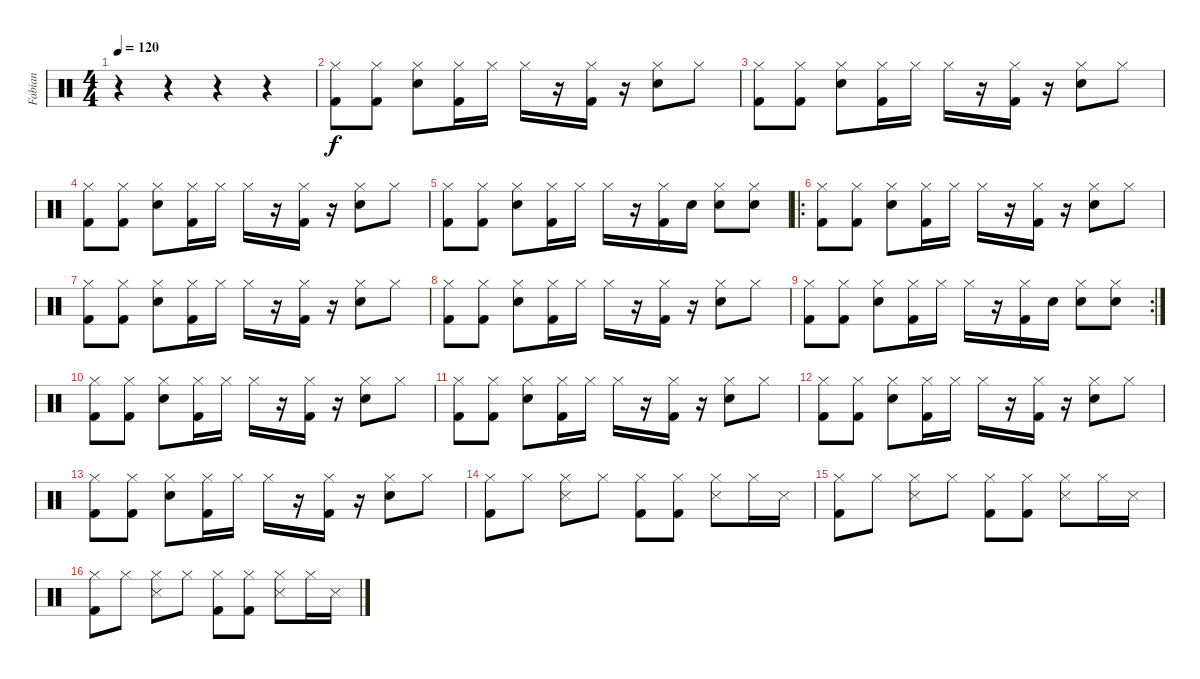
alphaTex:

\track ("Fabian" "Fabian") {instrument percussion}
\staff {score}
\articulation defaults
\ts (4 4)
\tempo 120
\clef neutral
\ks c
r.4{dy f} r.4 r.4 r.4 |
("Hi-Hat (closed)" "Kick (hit) 2").8 ("Hi-Hat (closed)" "Kick (hit) 2").8 ("Hi-Hat (closed)" "Electric Snare (hit)").8 ("Hi-Hat (closed)" "Kick (hit) 2").16 "Hi-Hat (closed)".16 "Hi-Hat (closed)".16 r.16 ("Hi-Hat (closed)" "Kick (hit) 2").16 r.16 ("Hi-Hat (closed)" "Electric Snare (hit)").8 "Hi-Hat (closed)".8 |
("Hi-Hat (closed)" "Kick (hit) 2").8 ("Hi-Hat (closed)" "Kick (hit) 2").8 ("Hi-Hat (closed)" "Electric Snare (hit)").8 ("Hi-Hat (closed)" "Kick (hit) 2").16 "Hi-Hat (closed)".16 "Hi-Hat (closed)".16 r.16 ("Hi-Hat (closed)" "Kick (hit) 2").16 r.16 ("Hi-Hat (closed)" "Electric Snare (hit)").8 "Hi-Hat (closed)".8 |
("Hi-Hat (closed)" "Kick (hit) 2").8 ("Hi-Hat (closed)" "Kick (hit) 2").8 ("Hi-Hat (closed)" "Electric Snare (hit)").8 ("Hi-Hat (closed)" "Kick (hit) 2").16 "Hi-Hat (closed)".16 "Hi-Hat (closed)".16 r.16 ("Hi-Hat (closed)" "Kick (hit) 2").16 r.16 ("Hi-Hat (closed)" "Electric Snare (hit)").8 "Hi-Hat (closed)".8 |
("Hi-Hat (closed)" "Kick (hit) 2").8 ("Hi-Hat (closed)" "Kick (hit) 2").8 ("Hi-Hat (closed)" "Electric Snare (hit)").8 ("Hi-Hat (closed)" "Kick (hit) 2").16 "Hi-Hat (closed)".16 "Hi-Hat (closed)".16 r.16 ("Hi-Hat (closed)" "Kick (hit) 2").16 "Electric Snare (hit)".16 ("Hi-Hat (closed)" "Electric Snare (hit)").8 ("Hi-Hat (closed)" "Electric Snare (hit)").8 |
\ro
("Hi-Hat (closed)" "Kick (hit) 2").8 ("Hi-Hat (closed)" "Kick (hit) 2").8 ("Hi-Hat (closed)" "Electric Snare (hit)").8 ("Hi-Hat (closed)" "Kick (hit) 2").16 "Hi-Hat (closed)".16 "Hi-Hat (closed)".16 r.16 ("Hi-Hat (closed)" "Kick (hit) 2").16 r.16 ("Hi-Hat (closed)" "Electric Snare (hit)").8 "Hi-Hat (closed)".8 |
("Hi-Hat (closed)" "Kick (hit) 2").8 ("Hi-Hat (closed)" "Kick (hit) 2").8 ("Hi-Hat (closed)" "Electric Snare (hit)").8 ("Hi-Hat (closed)" "Kick (hit) 2").16 "Hi-Hat (closed)".16 "Hi-Hat (closed)".16 r.16 ("Hi-Hat (closed)" "Kick (hit) 2").16 r.16 ("Hi-Hat (closed)" "Electric Snare (hit)").8 "Hi-Hat (closed)".8 |
("Hi-Hat (closed)" "Kick (hit) 2").8 ("Hi-Hat (closed)" "Kick (hit) 2").8 ("Hi-Hat (closed)" "Electric Snare (hit)").8 ("Hi-Hat (closed)" "Kick (hit) 2").16 "Hi-Hat (closed)".16 "Hi-Hat (closed)".16 r.16 ("Hi-Hat (closed)" "Kick (hit) 2").16 r.16 ("Hi-Hat (closed)" "Electric Snare (hit)").8 "Hi-Hat (closed)".8 |
\rc 2
("Hi-Hat (closed)" "Kick (hit) 2").8 ("Hi-Hat (closed)" "Kick (hit) 2").8 ("Hi-Hat (closed)" "Electric Snare (hit)").8 ("Hi-Hat (closed)" "Kick (hit) 2").16 "Hi-Hat (closed)".16 "Hi-Hat (closed)".16 r.16 ("Hi-Hat (closed)" "Kick (hit) 2").16 "Electric Snare (hit)".16 ("Hi-Hat (closed)" "Electric Snare (hit)").8 ("Hi-Hat (closed)" "Electric Snare (hit)").8 |
("Hi-Hat (closed)" "Kick (hit) 2").8 ("Hi-Hat (closed)" "Kick (hit) 2").8 ("Hi-Hat (closed)" "Electric Snare (hit)").8 ("Hi-Hat (closed)" "Kick (hit) 2").16 "Hi-Hat (closed)".16 "Hi-Hat (closed)".16 r.16 ("Hi-Hat (closed)" "Kick (hit) 2").16 r.16 ("Hi-Hat (closed)" "Electric Snare (hit)").8 "Hi-Hat (closed)".8 |
("Hi-Hat (closed)" "Kick (hit) 2").8 ("Hi-Hat (closed)" "Kick (hit) 2").8 ("Hi-Hat (closed)" "Electric Snare (hit)").8 ("Hi-Hat (closed)" "Kick (hit) 2").16 "Hi-Hat (closed)".16 "Hi-Hat (closed)".16 r.16 ("Hi-Hat (closed)" "Kick (hit) 2").16 r.16 ("Hi-Hat (closed)" "Electric Snare (hit)").8 "Hi-Hat (closed)".8 |
("Hi-Hat (closed)" "Kick (hit) 2").8 ("Hi-Hat (closed)" "Kick (hit) 2").8 ("Hi-Hat (closed)" "Electric Snare (hit)").8 ("Hi-Hat (closed)" "Kick (hit) 2").16 "Hi-Hat (closed)".16 "Hi-Hat (closed)".16 r.16 ("Hi-Hat (closed)" "Kick (hit) 2").16 r.16 ("Hi-Hat (closed)" "Electric Snare (hit)").8 "Hi-Hat (closed)".8 |
("Hi-Hat (closed)" "Kick (hit) 2").8 ("Hi-Hat (closed)" "Kick (hit) 2").8 ("Hi-Hat (closed)" "Electric Snare (hit)").8 ("Hi-Hat (closed)" "Kick (hit) 2").16 "Hi-Hat (closed)".16 "Hi-Hat (closed)".16 r.16 ("Hi-Hat (closed)" "Kick (hit) 2").16 r.16 ("Hi-Hat (closed)" "Electric Snare (hit)").8 "Hi-Hat (closed)".8 |
("Hi-Hat (closed)" "Kick (hit) 2").8 "Hi-Hat (closed)".8 ("Hi-Hat (closed)" "Snare (side stick) 3").8 "Hi-Hat (closed)".8 ("Hi-Hat (closed)" "Kick (hit) 2").8 ("Hi-Hat (closed)" "Kick (hit) 2").8 ("Hi-Hat (closed)" "Snare (side stick) 3").8 "Hi-Hat (closed)".16 "Snare (side stick) 3".16 |
("Hi-Hat (closed)" "Kick (hit) 2").8 "Hi-Hat (closed)".8 ("Hi-Hat (closed)" "Snare (side stick) 3").8 "Hi-Hat (closed)".8 ("Hi-Hat (closed)" "Kick (hit) 2").8 ("Hi-Hat (closed)" "Kick (hit) 2").8 ("Hi-Hat (closed)" "Snare (side stick) 3").8 "Hi-Hat (closed)".16 "Snare (side stick) 3".16 |
("Hi-Hat (closed)" "Kick (hit) 2").8 "Hi-Hat (closed)".8 ("Hi-Hat (closed)" "Snare (side stick) 3").8 "Hi-Hat (closed)".8 ("Hi-Hat (closed)" "Kick (hit) 2").8 ("Hi-Hat (closed)" "Kick (hit) 2").8 ("Hi-Hat (closed)" "Snare (side stick) 3").8 "Hi-Hat (closed)".16 "Snare (side stick) 3".16
